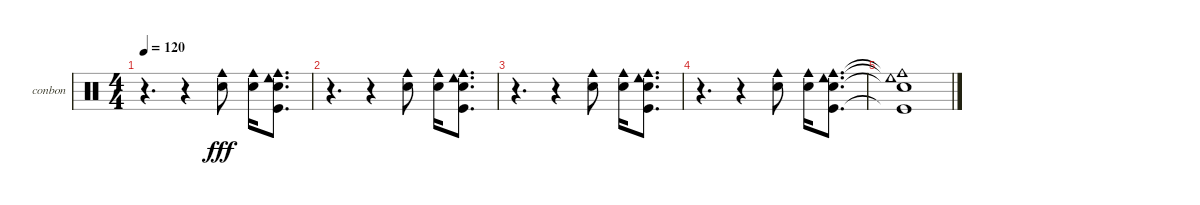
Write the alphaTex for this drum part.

\defaultSystemsLayout 4
\bracketExtendMode groupsimilarinstruments
\firstSystemTrackNameOrientation horizontal
\otherSystemsTrackNameOrientation horizontal
\track ("Bongos N Congas" "conbon") {instrument percussion}
\staff {score}
\articulation defaults
\ts (4 4)
\tempo 120
\clef neutral
\scale
0.333333
\ks c
r.4{d dy fff} r.4 ("Cowbell medium (hit)" "Snare (hit) 2").8 ("Cowbell medium (hit)" "Snare (hit) 2").16 ("Kick (hit)" "Cowbell medium (hit)" "Cowbell low (hit)" "Snare (hit) 2").8{d} |
\scale
0.333333 r.4{d} r.4 ("Cowbell medium (hit)" "Snare (hit) 2").8 ("Cowbell medium (hit)" "Snare (hit) 2").16 ("Kick (hit)" "Cowbell medium (hit)" "Cowbell low (hit)" "Snare (hit) 2").8{d} |
\scale
0.333333 r.4{d} r.4 ("Cowbell medium (hit)" "Snare (hit) 2").8 ("Cowbell medium (hit)" "Snare (hit) 2").16 ("Kick (hit)" "Cowbell medium (hit)" "Cowbell low (hit)" "Snare (hit) 2").8{d} |
r.4{d} r.4 ("Cowbell medium (hit)" "Snare (hit) 2").8 ("Cowbell medium (hit)" "Snare (hit) 2").16 ("Kick (hit)" "Cowbell medium (hit)" "Cowbell low (hit)" "Snare (hit) 2").8{d} |
("Kick (hit)"{t} "Cowbell medium (hit)"{t} "Cowbell low (hit)"{t} "Snare (hit) 2"{t}).1
